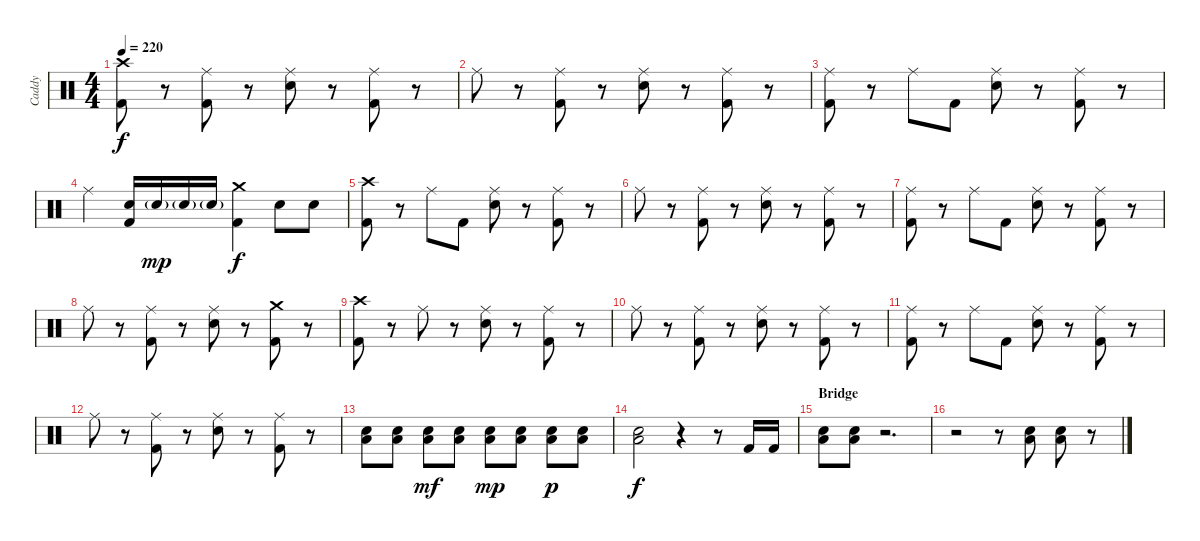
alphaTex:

\track ("Caddy" "Caddy") {instrument percussion}
\staff {score}
\articulation defaults
\ts (4 4)
\tempo 220
\clef neutral
\ks c
("Crash high (hit)" "Kick (hit) 2").8{dy f} r.8 ("Ride (middle)" "Kick (hit) 2").8 r.8 ("Ride (middle)" "Electric Snare (hit)").8 r.8 ("Ride (middle)" "Kick (hit) 2").8 r.8 |
"Ride (middle)".8 r.8 ("Ride (middle)" "Kick (hit) 2").8 r.8 ("Ride (middle)" "Electric Snare (hit)").8 r.8 ("Ride (middle)" "Kick (hit) 2").8 r.8 |
("Ride (middle)" "Kick (hit) 2").8 r.8 "Ride (middle)".8 "Kick (hit) 2".8 ("Ride (middle)" "Electric Snare (hit)").8 r.8 ("Ride (middle)" "Kick (hit) 2").8 r.8 |
"Ride (middle)".4 ("Electric Snare (hit)" "Kick (hit) 2").16 "Electric Snare (hit)"{g}.16{dy mp} "Electric Snare (hit)"{g}.16 "Electric Snare (hit)"{g}.16 ("Crash medium (hit)" "Kick (hit) 2").4{dy f} "Electric Snare (hit)".8 "Electric Snare (hit)".8 |
("Crash high (hit)" "Kick (hit) 2").8 r.8 "Ride (middle)".8 "Kick (hit) 2".8 ("Ride (middle)" "Electric Snare (hit)").8 r.8 ("Ride (middle)" "Kick (hit) 2").8 r.8 |
"Ride (middle)".8 r.8 ("Ride (middle)" "Kick (hit) 2").8 r.8 ("Ride (middle)" "Electric Snare (hit)").8 r.8 ("Ride (middle)" "Kick (hit) 2").8 r.8 |
("Ride (middle)" "Kick (hit) 2").8 r.8 "Ride (middle)".8 "Kick (hit) 2".8 ("Ride (middle)" "Electric Snare (hit)").8 r.8 ("Ride (middle)" "Kick (hit) 2").8 r.8 |
"Ride (middle)".8 r.8 ("Ride (middle)" "Kick (hit) 2").8 r.8 ("Ride (middle)" "Electric Snare (hit)").8 r.8 ("Crash medium (hit)" "Kick (hit) 2").8 r.8 |
("Crash high (hit)" "Kick (hit) 2").8 r.8 "Ride (middle)".8 r.8 ("Ride (middle)" "Electric Snare (hit)").8 r.8 ("Ride (middle)" "Kick (hit) 2").8 r.8 |
"Ride (middle)".8 r.8 ("Ride (middle)" "Kick (hit) 2").8 r.8 ("Ride (middle)" "Electric Snare (hit)").8 r.8 ("Ride (middle)" "Kick (hit) 2").8 r.8 |
("Ride (middle)" "Kick (hit) 2").8 r.8 "Ride (middle)".8 "Kick (hit) 2".8 ("Ride (middle)" "Electric Snare (hit)").8 r.8 ("Ride (middle)" "Kick (hit) 2").8 r.8 |
"Ride (middle)".8 r.8 ("Ride (middle)" "Kick (hit) 2").8 r.8 ("Ride (middle)" "Electric Snare (hit)").8 r.8 ("Ride (middle)" "Kick (hit) 2").8 r.8 |
("Electric Snare (hit)" "Low Floor Tom (hit)").8 ("Electric Snare (hit)" "Low Floor Tom (hit)").8 ("Electric Snare (hit)" "Low Floor Tom (hit)").8{dy mf} ("Electric Snare (hit)" "Low Floor Tom (hit)").8 ("Electric Snare (hit)" "Low Floor Tom (hit)").8{dy mp} ("Electric Snare (hit)" "Low Floor Tom (hit)").8 ("Electric Snare (hit)" "Low Floor Tom (hit)").8{dy p} ("Electric Snare (hit)" "Low Floor Tom (hit)").8 |
("Electric Snare (hit)" "Low Floor Tom (hit)").2{dy f} r.4 r.8 "Kick (hit) 2".16 "Kick (hit) 2".16 |
\section ("" "Bridge")
("Electric Snare (hit)" "Low Floor Tom (hit)").8 ("Electric Snare (hit)" "Low Floor Tom (hit)").8 r.2{d} |
r.2 r.8 ("Electric Snare (hit)" "Low Floor Tom (hit)").8 ("Electric Snare (hit)" "Low Floor Tom (hit)").8 r.8
